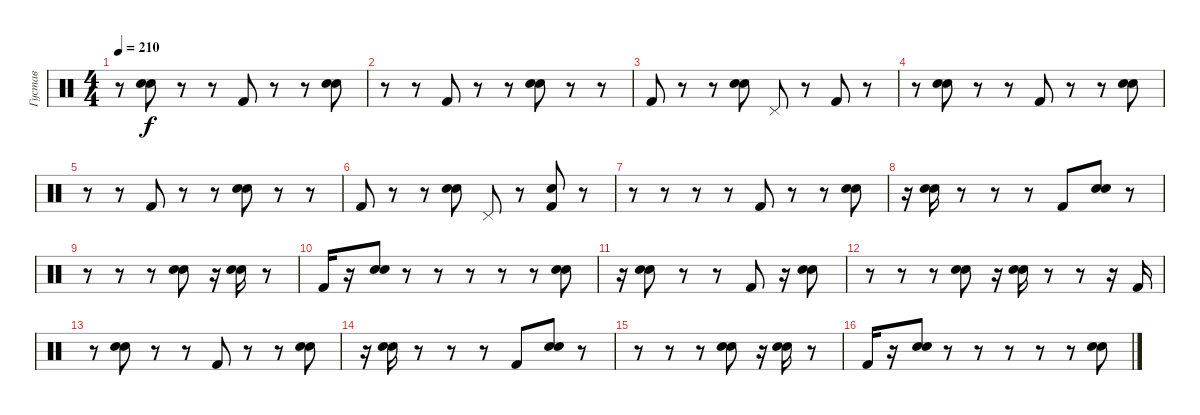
\track ("Густав" "Густав") {instrument percussion}
\staff {score}
\articulation defaults
\ts (4 4)
\tempo 210
\clef neutral
\ks c
r.8{dy f} ("Electric Snare (hit)" "Snare (hit) 2").8 r.8 r.8 "Kick (hit) 2".8 r.8 r.8 ("Electric Snare (hit)" "Snare (hit) 2").8 |
r.8 r.8 "Kick (hit) 2".8 r.8 r.8 ("Electric Snare (hit)" "Snare (hit) 2").8 r.8 r.8 |
"Kick (hit) 2".8 r.8 r.8 ("Electric Snare (hit)" "Snare (hit) 2").8 "Pedal Hi-Hat (hit)".8 r.8 "Kick (hit) 2".8 r.8 |
r.8 ("Electric Snare (hit)" "Snare (hit) 2").8 r.8 r.8 "Kick (hit) 2".8 r.8 r.8 ("Electric Snare (hit)" "Snare (hit) 2").8 |
r.8 r.8 "Kick (hit) 2".8 r.8 r.8 ("Electric Snare (hit)" "Snare (hit) 2").8 r.8 r.8 |
"Kick (hit) 2".8 r.8 r.8 ("Electric Snare (hit)" "Snare (hit) 2").8 "Pedal Hi-Hat (hit)".8 r.8 ("Snare (hit) 2" "Kick (hit) 2").8 r.8 |
r.8 r.8 r.8 r.8 "Kick (hit) 2".8 r.8 r.8 ("Snare (hit) 2" "Electric Snare (hit)").8 |
r.16 ("Snare (hit) 2" "Electric Snare (hit)").16 r.8 r.8 r.8 "Kick (hit) 2".8 ("Snare (hit) 2" "Electric Snare (hit)").8 r.8 |
r.8 r.8 r.8 ("Snare (hit) 2" "Electric Snare (hit)").8 r.16 ("Snare (hit) 2" "Electric Snare (hit)").16 r.8 |
"Kick (hit) 2".16 r.16 ("Snare (hit) 2" "Electric Snare (hit)").8 r.8 r.8 r.8 r.8 r.8 ("Snare (hit) 2" "Electric Snare (hit)").8 |
r.16 ("Snare (hit) 2" "Electric Snare (hit)").8 r.8 r.8 "Kick (hit) 2".8 r.16 ("Snare (hit) 2" "Electric Snare (hit)").8 |
r.8 r.8 r.8 ("Snare (hit) 2" "Electric Snare (hit)").8 r.16 ("Snare (hit) 2" "Electric Snare (hit)").16 r.8 r.8 r.16 "Kick (hit) 2".16 |
r.8 ("Snare (hit) 2" "Electric Snare (hit)").8 r.8 r.8 "Kick (hit) 2".8 r.8 r.8 ("Snare (hit) 2" "Electric Snare (hit)").8 |
r.16 ("Snare (hit) 2" "Electric Snare (hit)").16 r.8 r.8 r.8 "Kick (hit) 2".8 ("Snare (hit) 2" "Electric Snare (hit)").8 r.8 |
r.8 r.8 r.8 ("Snare (hit) 2" "Electric Snare (hit)").8 r.16 ("Snare (hit) 2" "Electric Snare (hit)").16 r.8 |
"Kick (hit) 2".16 r.16 ("Snare (hit) 2" "Electric Snare (hit)").8 r.8 r.8 r.8 r.8 r.8 ("Snare (hit) 2" "Electric Snare (hit)").8
